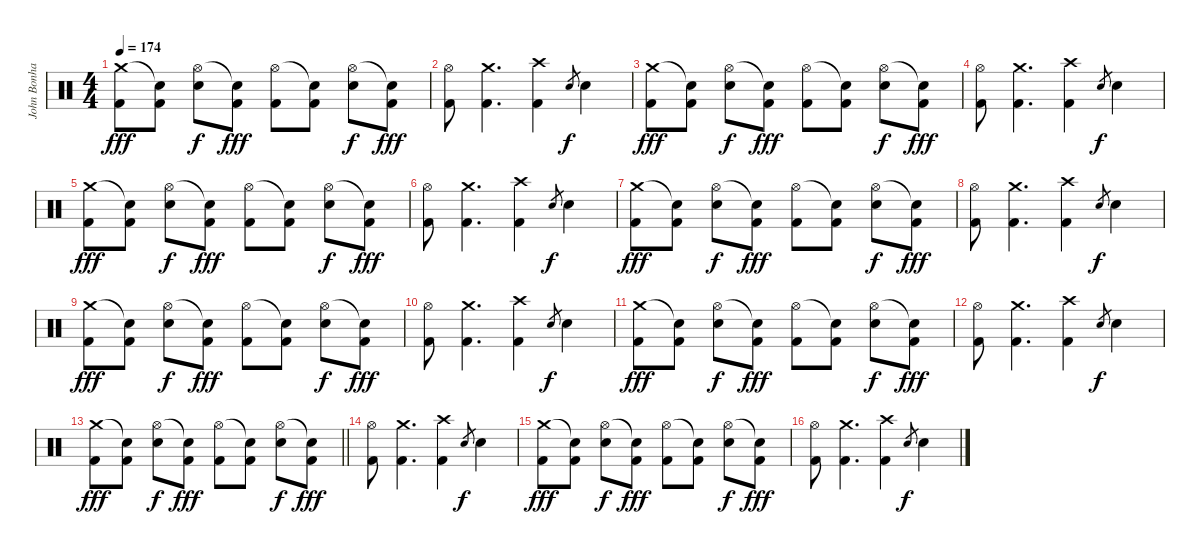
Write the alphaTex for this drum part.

\track ("John Bonham - Drums" "John Bonha") {instrument percussion}
\staff {score}
\articulation defaults
\ts (4 4)
\tempo 174
\clef neutral
\ks c
("Crash medium (hit)" "Kick (hit) 2").8{dy fff} ("Snare (hit)"{t} "Kick (hit) 2").8 ("Hi-Hat (open)" "Snare (hit) 2").8{dy f} ("Snare (hit)"{t} "Kick (hit) 2").8{dy fff} ("Hi-Hat (open)" "Kick (hit) 2").8 ("Snare (hit)"{t} "Kick (hit) 2").8 ("Hi-Hat (open)" "Snare (hit) 2").8{dy f} ("Snare (hit)"{t} "Kick (hit) 2").8{dy fff} |
("Hi-Hat (open)" "Kick (hit) 2").8 ("Crash medium (hit)" "Kick (hit) 2").4{d} ("Crash high (hit)" "Kick (hit) 2").4 "Snare (hit) 2".8{gr dy f} "Snare (hit) 2".4 |
("Crash medium (hit)" "Kick (hit) 2").8{dy fff} ("Snare (hit)"{t} "Kick (hit) 2").8 ("Hi-Hat (open)" "Snare (hit) 2").8{dy f} ("Snare (hit)"{t} "Kick (hit) 2").8{dy fff} ("Hi-Hat (open)" "Kick (hit) 2").8 ("Snare (hit)"{t} "Kick (hit) 2").8 ("Hi-Hat (open)" "Snare (hit) 2").8{dy f} ("Snare (hit)"{t} "Kick (hit) 2").8{dy fff} |
("Hi-Hat (open)" "Kick (hit) 2").8 ("Crash medium (hit)" "Kick (hit) 2").4{d} ("Crash high (hit)" "Kick (hit) 2").4 "Snare (hit) 2".8{gr dy f} "Snare (hit) 2".4 |
("Crash medium (hit)" "Kick (hit) 2").8{dy fff} ("Snare (hit)"{t} "Kick (hit) 2").8 ("Hi-Hat (open)" "Snare (hit) 2").8{dy f} ("Snare (hit)"{t} "Kick (hit) 2").8{dy fff} ("Hi-Hat (open)" "Kick (hit) 2").8 ("Snare (hit)"{t} "Kick (hit) 2").8 ("Hi-Hat (open)" "Snare (hit) 2").8{dy f} ("Snare (hit)"{t} "Kick (hit) 2").8{dy fff} |
("Hi-Hat (open)" "Kick (hit) 2").8 ("Crash medium (hit)" "Kick (hit) 2").4{d} ("Crash high (hit)" "Kick (hit) 2").4 "Snare (hit) 2".8{gr dy f} "Snare (hit) 2".4 |
("Crash medium (hit)" "Kick (hit) 2").8{dy fff} ("Snare (hit)"{t} "Kick (hit) 2").8 ("Hi-Hat (open)" "Snare (hit) 2").8{dy f} ("Snare (hit)"{t} "Kick (hit) 2").8{dy fff} ("Hi-Hat (open)" "Kick (hit) 2").8 ("Snare (hit)"{t} "Kick (hit) 2").8 ("Hi-Hat (open)" "Snare (hit) 2").8{dy f} ("Snare (hit)"{t} "Kick (hit) 2").8{dy fff} |
("Hi-Hat (open)" "Kick (hit) 2").8 ("Crash medium (hit)" "Kick (hit) 2").4{d} ("Crash high (hit)" "Kick (hit) 2").4 "Snare (hit) 2".8{gr dy f} "Snare (hit) 2".4 |
("Crash medium (hit)" "Kick (hit) 2").8{dy fff} ("Snare (hit)"{t} "Kick (hit) 2").8 ("Hi-Hat (open)" "Snare (hit) 2").8{dy f} ("Snare (hit)"{t} "Kick (hit) 2").8{dy fff} ("Hi-Hat (open)" "Kick (hit) 2").8 ("Snare (hit)"{t} "Kick (hit) 2").8 ("Hi-Hat (open)" "Snare (hit) 2").8{dy f} ("Snare (hit)"{t} "Kick (hit) 2").8{dy fff} |
("Hi-Hat (open)" "Kick (hit) 2").8 ("Crash medium (hit)" "Kick (hit) 2").4{d} ("Crash high (hit)" "Kick (hit) 2").4 "Snare (hit) 2".8{gr dy f} "Snare (hit) 2".4 |
("Crash medium (hit)" "Kick (hit) 2").8{dy fff} ("Snare (hit)"{t} "Kick (hit) 2").8 ("Hi-Hat (open)" "Snare (hit) 2").8{dy f} ("Snare (hit)"{t} "Kick (hit) 2").8{dy fff} ("Hi-Hat (open)" "Kick (hit) 2").8 ("Snare (hit)"{t} "Kick (hit) 2").8 ("Hi-Hat (open)" "Snare (hit) 2").8{dy f} ("Snare (hit)"{t} "Kick (hit) 2").8{dy fff} |
("Hi-Hat (open)" "Kick (hit) 2").8 ("Crash medium (hit)" "Kick (hit) 2").4{d} ("Crash high (hit)" "Kick (hit) 2").4 "Snare (hit) 2".8{gr dy f} "Snare (hit) 2".4 |
\barLineRight lightlight
("Crash medium (hit)" "Kick (hit) 2").8{dy fff} ("Snare (hit)"{t} "Kick (hit) 2").8 ("Hi-Hat (open)" "Snare (hit) 2").8{dy f} ("Snare (hit)"{t} "Kick (hit) 2").8{dy fff} ("Hi-Hat (open)" "Kick (hit) 2").8 ("Snare (hit)"{t} "Kick (hit) 2").8 ("Hi-Hat (open)" "Snare (hit) 2").8{dy f} ("Snare (hit)"{t} "Kick (hit) 2").8{dy fff} |
("Hi-Hat (open)" "Kick (hit) 2").8 ("Crash medium (hit)" "Kick (hit) 2").4{d} ("Crash high (hit)" "Kick (hit) 2").4 "Snare (hit) 2".8{gr dy f} "Snare (hit) 2".4 |
("Crash medium (hit)" "Kick (hit) 2").8{dy fff} ("Snare (hit)"{t} "Kick (hit) 2").8 ("Hi-Hat (open)" "Snare (hit) 2").8{dy f} ("Snare (hit)"{t} "Kick (hit) 2").8{dy fff} ("Hi-Hat (open)" "Kick (hit) 2").8 ("Snare (hit)"{t} "Kick (hit) 2").8 ("Hi-Hat (open)" "Snare (hit) 2").8{dy f} ("Snare (hit)"{t} "Kick (hit) 2").8{dy fff} |
("Hi-Hat (open)" "Kick (hit) 2").8 ("Crash medium (hit)" "Kick (hit) 2").4{d} ("Crash high (hit)" "Kick (hit) 2").4 "Snare (hit) 2".8{gr dy f} "Snare (hit) 2".4
